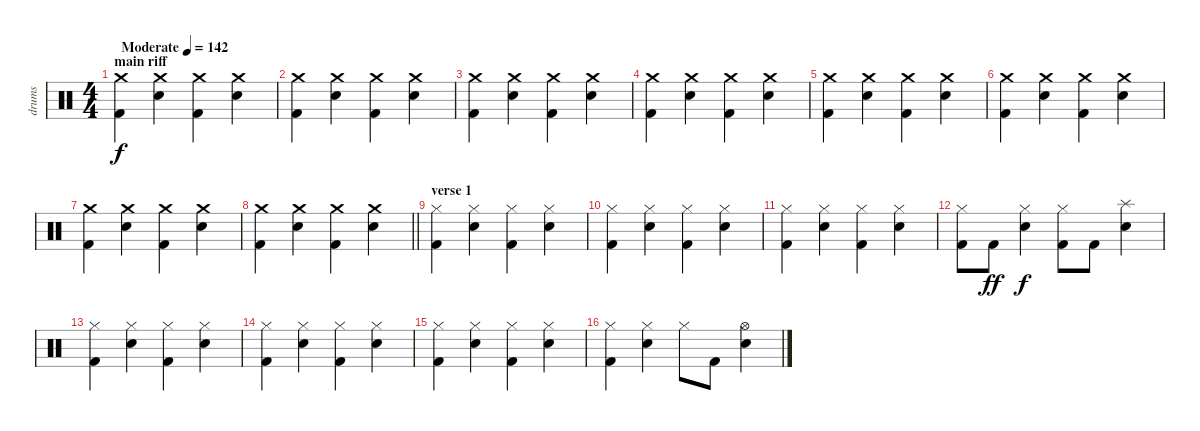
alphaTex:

\track ("drums" "drums") {instrument percussion}
\staff {score}
\articulation defaults
\ts (4 4)
\section ("" "main riff")
\tempo (142 "Moderate")
\clef neutral
\ks c
("Crash medium (hit)" "Kick (hit) 2").4{dy f} ("Crash medium (hit)" "Electric Snare (hit)").4 ("Crash medium (hit)" "Kick (hit) 2").4 ("Crash medium (hit)" "Electric Snare (hit)").4 |
("Crash medium (hit)" "Kick (hit) 2").4 ("Crash medium (hit)" "Electric Snare (hit)").4 ("Crash medium (hit)" "Kick (hit) 2").4 ("Crash medium (hit)" "Electric Snare (hit)").4 |
("Crash medium (hit)" "Kick (hit) 2").4 ("Crash medium (hit)" "Electric Snare (hit)").4 ("Crash medium (hit)" "Kick (hit) 2").4 ("Crash medium (hit)" "Electric Snare (hit)").4 |
("Crash medium (hit)" "Kick (hit) 2").4 ("Crash medium (hit)" "Electric Snare (hit)").4 ("Crash medium (hit)" "Kick (hit) 2").4 ("Crash medium (hit)" "Electric Snare (hit)").4 |
("Crash medium (hit)" "Kick (hit) 2").4 ("Crash medium (hit)" "Electric Snare (hit)").4 ("Crash medium (hit)" "Kick (hit) 2").4 ("Crash medium (hit)" "Electric Snare (hit)").4 |
("Crash medium (hit)" "Kick (hit) 2").4 ("Crash medium (hit)" "Electric Snare (hit)").4 ("Crash medium (hit)" "Kick (hit) 2").4 ("Crash medium (hit)" "Electric Snare (hit)").4 |
("Crash medium (hit)" "Kick (hit) 2").4 ("Crash medium (hit)" "Electric Snare (hit)").4 ("Crash medium (hit)" "Kick (hit) 2").4 ("Crash medium (hit)" "Electric Snare (hit)").4 |
\barLineRight lightlight
("Crash medium (hit)" "Kick (hit) 2").4 ("Crash medium (hit)" "Electric Snare (hit)").4 ("Crash medium (hit)" "Kick (hit) 2").4 ("Crash medium (hit)" "Electric Snare (hit)").4 |
\section ("" "verse 1")
("Hi-Hat (closed)" "Kick (hit) 2").4 ("Hi-Hat (closed)" "Electric Snare (hit)").4 ("Hi-Hat (closed)" "Kick (hit) 2").4 ("Hi-Hat (closed)" "Electric Snare (hit)").4 |
("Hi-Hat (closed)" "Kick (hit) 2").4 ("Hi-Hat (closed)" "Electric Snare (hit)").4 ("Hi-Hat (closed)" "Kick (hit) 2").4 ("Hi-Hat (closed)" "Electric Snare (hit)").4 |
("Hi-Hat (closed)" "Kick (hit) 2").4 ("Hi-Hat (closed)" "Electric Snare (hit)").4 ("Hi-Hat (closed)" "Kick (hit) 2").4 ("Hi-Hat (closed)" "Electric Snare (hit)").4 |
("Hi-Hat (closed)" "Kick (hit) 2").8 "Kick (hit) 2".8{dy ff} ("Hi-Hat (closed)" "Electric Snare (hit)").4{dy f} ("Hi-Hat (closed)" "Kick (hit) 2").8 "Kick (hit) 2".8 ("Splash (hit)" "Electric Snare (hit)").4 |
("Hi-Hat (closed)" "Kick (hit) 2").4 ("Hi-Hat (closed)" "Electric Snare (hit)").4 ("Hi-Hat (closed)" "Kick (hit) 2").4 ("Hi-Hat (closed)" "Electric Snare (hit)").4 |
("Hi-Hat (closed)" "Kick (hit) 2").4 ("Hi-Hat (closed)" "Electric Snare (hit)").4 ("Hi-Hat (closed)" "Kick (hit) 2").4 ("Hi-Hat (closed)" "Electric Snare (hit)").4 |
("Hi-Hat (closed)" "Kick (hit) 2").4 ("Hi-Hat (closed)" "Electric Snare (hit)").4 ("Hi-Hat (closed)" "Kick (hit) 2").4 ("Hi-Hat (closed)" "Electric Snare (hit)").4 |
("Hi-Hat (closed)" "Kick (hit) 2").4 ("Hi-Hat (closed)" "Electric Snare (hit)").4 "Hi-Hat (closed)".8 "Kick (hit) 2".8 ("Hi-Hat (open)" "Electric Snare (hit)").4
